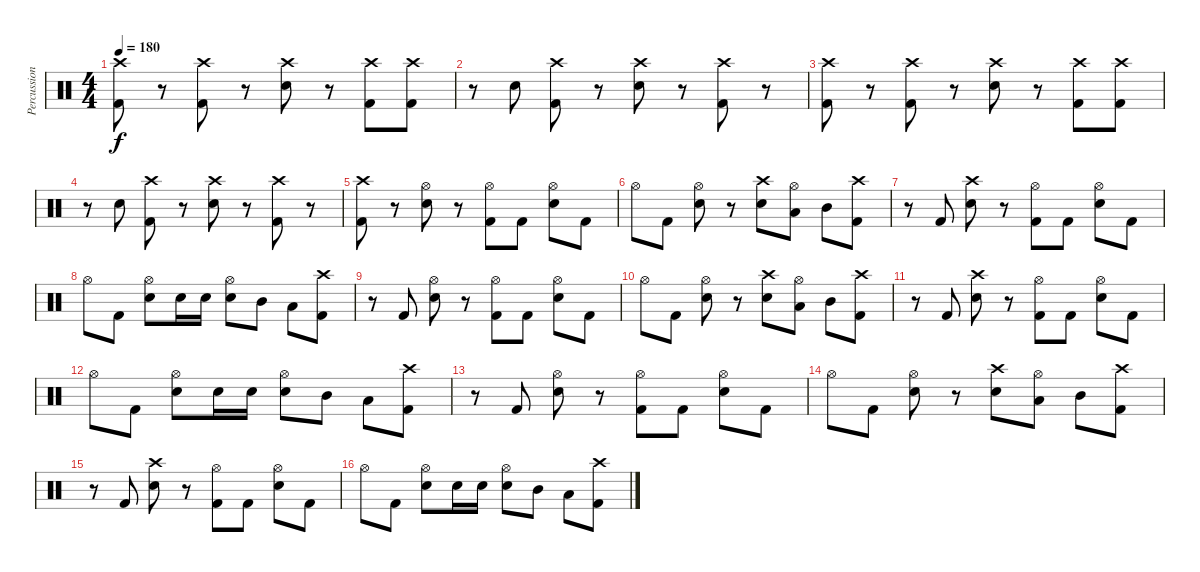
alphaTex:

\track ("Percussion" "Percussion") {instrument percussion}
\staff {score}
\articulation defaults
\ts (4 4)
\tempo 180
\clef neutral
\ks c
("Crash high (hit)" "Kick (hit) 2").8{dy f} r.8 ("Crash high (hit)" "Kick (hit) 2").8 r.8 ("Crash high (hit)" "Electric Snare (hit)").8 r.8 ("Crash high (hit)" "Kick (hit) 2").8 ("Crash high (hit)" "Kick (hit) 2").8 |
r.8 "Electric Snare (hit)".8 ("Crash high (hit)" "Kick (hit) 2").8 r.8 ("Crash high (hit)" "Electric Snare (hit)").8 r.8 ("Crash high (hit)" "Kick (hit) 2").8 r.8 |
("Crash high (hit)" "Kick (hit) 2").8 r.8 ("Crash high (hit)" "Kick (hit) 2").8 r.8 ("Crash high (hit)" "Electric Snare (hit)").8 r.8 ("Crash high (hit)" "Kick (hit) 2").8 ("Crash high (hit)" "Kick (hit) 2").8 |
r.8 "Electric Snare (hit)".8 ("Crash high (hit)" "Kick (hit) 2").8 r.8 ("Crash high (hit)" "Electric Snare (hit)").8 r.8 ("Crash high (hit)" "Kick (hit) 2").8 r.8 |
("Crash high (hit)" "Kick (hit) 2").8 r.8 ("Hi-Hat (open)" "Electric Snare (hit)").8 r.8 ("Hi-Hat (open)" "Kick (hit) 2").8 "Kick (hit) 2".8 ("Hi-Hat (open)" "Electric Snare (hit)").8 "Kick (hit) 2".8 |
"Hi-Hat (open)".8 "Kick (hit) 2".8 ("Hi-Hat (open)" "Electric Snare (hit)").8 r.8 ("Crash high (hit)" "Electric Snare (hit)").8 ("Hi-Hat (open)" "Low Tom (hit)").8 "Mid Tom (hit)".8 ("Crash high (hit)" "Kick (hit) 2").8 |
r.8 "Kick (hit) 2".8 ("Crash high (hit)" "Electric Snare (hit)").8 r.8 ("Hi-Hat (open)" "Kick (hit) 2").8 "Kick (hit) 2".8 ("Hi-Hat (open)" "Electric Snare (hit)").8 "Kick (hit) 2".8 |
"Hi-Hat (open)".8 "Kick (hit) 2".8 ("Hi-Hat (open)" "Electric Snare (hit)").8 "Electric Snare (hit)".16 "Electric Snare (hit)".16 ("Hi-Hat (open)" "Electric Snare (hit)").8 "Mid Tom (hit)".8 "Low Tom (hit)".8 ("Crash high (hit)" "Kick (hit) 2").8 |
r.8 "Kick (hit) 2".8 ("Hi-Hat (open)" "Electric Snare (hit)").8 r.8 ("Hi-Hat (open)" "Kick (hit) 2").8 "Kick (hit) 2".8 ("Hi-Hat (open)" "Electric Snare (hit)").8 "Kick (hit) 2".8 |
"Hi-Hat (open)".8 "Kick (hit) 2".8 ("Hi-Hat (open)" "Electric Snare (hit)").8 r.8 ("Crash high (hit)" "Electric Snare (hit)").8 ("Hi-Hat (open)" "Low Tom (hit)").8 "Mid Tom (hit)".8 ("Crash high (hit)" "Kick (hit) 2").8 |
r.8 "Kick (hit) 2".8 ("Crash high (hit)" "Electric Snare (hit)").8 r.8 ("Hi-Hat (open)" "Kick (hit) 2").8 "Kick (hit) 2".8 ("Hi-Hat (open)" "Electric Snare (hit)").8 "Kick (hit) 2".8 |
"Hi-Hat (open)".8 "Kick (hit) 2".8 ("Hi-Hat (open)" "Electric Snare (hit)").8 "Electric Snare (hit)".16 "Electric Snare (hit)".16 ("Hi-Hat (open)" "Electric Snare (hit)").8 "Mid Tom (hit)".8 "Low Tom (hit)".8 ("Crash high (hit)" "Kick (hit) 2").8 |
r.8 "Kick (hit) 2".8 ("Hi-Hat (open)" "Electric Snare (hit)").8 r.8 ("Hi-Hat (open)" "Kick (hit) 2").8 "Kick (hit) 2".8 ("Hi-Hat (open)" "Electric Snare (hit)").8 "Kick (hit) 2".8 |
"Hi-Hat (open)".8 "Kick (hit) 2".8 ("Hi-Hat (open)" "Electric Snare (hit)").8 r.8 ("Crash high (hit)" "Electric Snare (hit)").8 ("Hi-Hat (open)" "Low Tom (hit)").8 "Mid Tom (hit)".8 ("Crash high (hit)" "Kick (hit) 2").8 |
r.8 "Kick (hit) 2".8 ("Crash high (hit)" "Electric Snare (hit)").8 r.8 ("Hi-Hat (open)" "Kick (hit) 2").8 "Kick (hit) 2".8 ("Hi-Hat (open)" "Electric Snare (hit)").8 "Kick (hit) 2".8 |
"Hi-Hat (open)".8 "Kick (hit) 2".8 ("Hi-Hat (open)" "Electric Snare (hit)").8 "Electric Snare (hit)".16 "Electric Snare (hit)".16 ("Hi-Hat (open)" "Electric Snare (hit)").8 "Mid Tom (hit)".8 "Low Tom (hit)".8 ("Crash high (hit)" "Kick (hit) 2").8
